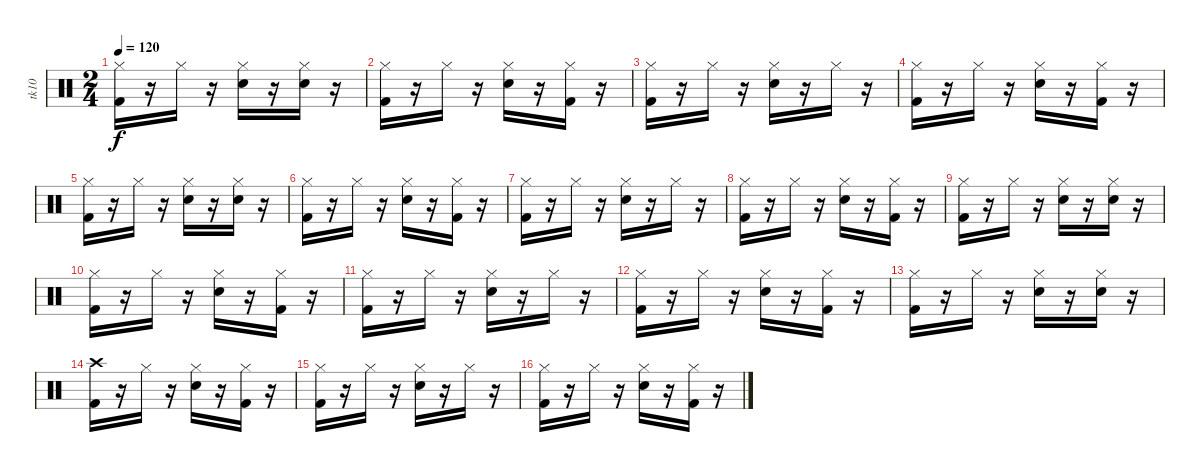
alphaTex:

\track ("tk10" "tk10") {instrument percussion}
\staff {score}
\articulation defaults
\ts (2 4)
\tempo 120
\clef neutral
\ks c
("Kick (hit) 2" "Hi-Hat (closed)").16{dy f} r.16 "Hi-Hat (closed)".16 r.16 ("Snare (hit) 2" "Hi-Hat (closed)").16 r.16 ("Hi-Hat (closed)" "Snare (hit) 2").16 r.16 |
("Kick (hit) 2" "Hi-Hat (closed)").16 r.16 "Hi-Hat (closed)".16 r.16 ("Hi-Hat (closed)" "Snare (hit) 2").16 r.16 ("Kick (hit) 2" "Hi-Hat (closed)").16 r.16 |
("Hi-Hat (closed)" "Kick (hit) 2").16 r.16 "Hi-Hat (closed)".16 r.16 ("Hi-Hat (closed)" "Snare (hit) 2").16 r.16 "Hi-Hat (closed)".16 r.16 |
("Hi-Hat (closed)" "Kick (hit) 2").16 r.16 "Hi-Hat (closed)".16 r.16 ("Snare (hit) 2" "Hi-Hat (closed)").16 r.16 ("Hi-Hat (closed)" "Kick (hit) 2").16 r.16 |
("Hi-Hat (closed)" "Kick (hit) 2").16 r.16 "Hi-Hat (closed)".16 r.16 ("Snare (hit) 2" "Hi-Hat (closed)").16 r.16 ("Hi-Hat (closed)" "Snare (hit) 2").16 r.16 |
("Kick (hit) 2" "Hi-Hat (closed)").16 r.16 "Hi-Hat (closed)".16 r.16 ("Hi-Hat (closed)" "Snare (hit) 2").16 r.16 ("Kick (hit) 2" "Hi-Hat (closed)").16 r.16 |
("Kick (hit) 2" "Hi-Hat (closed)").16 r.16 "Hi-Hat (closed)".16 r.16 ("Hi-Hat (closed)" "Snare (hit) 2").16 r.16 "Hi-Hat (closed)".16 r.16 |
("Kick (hit) 2" "Hi-Hat (closed)").16 r.16 "Hi-Hat (closed)".16 r.16 ("Snare (hit) 2" "Hi-Hat (closed)").16 r.16 ("Hi-Hat (closed)" "Kick (hit) 2").16 r.16 |
("Kick (hit) 2" "Hi-Hat (closed)").16 r.16 "Hi-Hat (closed)".16 r.16 ("Hi-Hat (closed)" "Snare (hit) 2").16 r.16 ("Snare (hit) 2" "Hi-Hat (closed)").16 r.16 |
("Hi-Hat (closed)" "Kick (hit) 2").16 r.16 "Hi-Hat (closed)".16 r.16 ("Snare (hit) 2" "Hi-Hat (closed)").16 r.16 ("Hi-Hat (closed)" "Kick (hit) 2").16 r.16 |
("Kick (hit) 2" "Hi-Hat (closed)").16 r.16 "Hi-Hat (closed)".16 r.16 ("Hi-Hat (closed)" "Snare (hit) 2").16 r.16 "Hi-Hat (closed)".16 r.16 |
("Kick (hit) 2" "Hi-Hat (closed)").16 r.16 "Hi-Hat (closed)".16 r.16 ("Snare (hit) 2" "Hi-Hat (closed)").16 r.16 ("Hi-Hat (closed)" "Kick (hit) 2").16 r.16 |
("Hi-Hat (closed)" "Kick (hit) 2").16 r.16 "Hi-Hat (closed)".16 r.16 ("Hi-Hat (closed)" "Snare (hit) 2").16 r.16 ("Hi-Hat (closed)" "Snare (hit) 2").16 r.16 |
("Kick (hit) 2" "Crash high (hit)").16 r.16 "Hi-Hat (closed)".16 r.16 ("Hi-Hat (closed)" "Snare (hit) 2").16 r.16 ("Hi-Hat (closed)" "Kick (hit) 2").16 r.16 |
("Hi-Hat (closed)" "Kick (hit) 2").16 r.16 "Hi-Hat (closed)".16 r.16 ("Snare (hit) 2" "Hi-Hat (closed)").16 r.16 "Hi-Hat (closed)".16 r.16 |
("Hi-Hat (closed)" "Kick (hit) 2").16 r.16 "Hi-Hat (closed)".16 r.16 ("Hi-Hat (closed)" "Snare (hit) 2").16 r.16 ("Kick (hit) 2" "Hi-Hat (closed)").16 r.16
